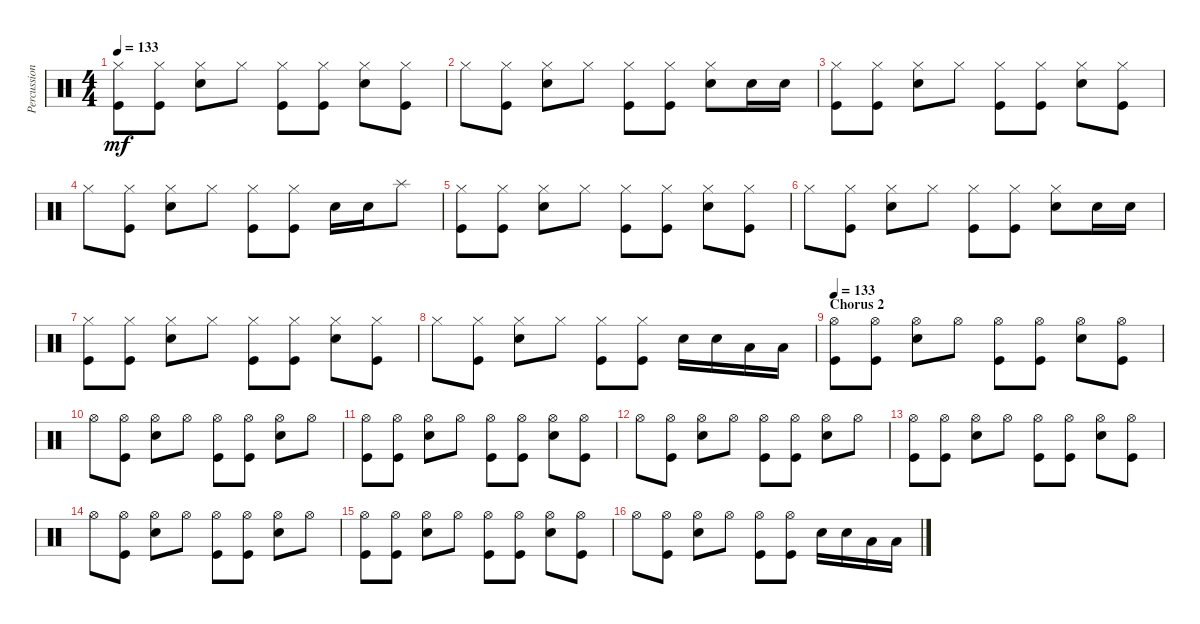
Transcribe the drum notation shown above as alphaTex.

\track ("Percussion" "Percussion") {instrument percussion}
\staff {score}
\articulation defaults
\ts (4 4)
\tempo 133
\clef neutral
\ks c
("Hi-Hat (closed)" "Kick (hit)").8{dy mf} ("Hi-Hat (closed)" "Kick (hit)").8 ("Hi-Hat (closed)" "Snare (hit) 2").8 "Hi-Hat (closed)".8 ("Hi-Hat (closed)" "Kick (hit)").8 ("Hi-Hat (closed)" "Kick (hit)").8 ("Hi-Hat (closed)" "Snare (hit) 2").8 ("Hi-Hat (closed)" "Kick (hit)").8 |
"Hi-Hat (closed)".8 ("Hi-Hat (closed)" "Kick (hit)").8 ("Hi-Hat (closed)" "Snare (hit) 2").8 "Hi-Hat (closed)".8 ("Hi-Hat (closed)" "Kick (hit)").8 ("Hi-Hat (closed)" "Kick (hit)").8 ("Hi-Hat (closed)" "Snare (hit) 2").8 "Snare (hit) 2".16 "Snare (hit) 2".16 |
("Hi-Hat (closed)" "Kick (hit)").8 ("Hi-Hat (closed)" "Kick (hit)").8 ("Hi-Hat (closed)" "Snare (hit) 2").8 "Hi-Hat (closed)".8 ("Hi-Hat (closed)" "Kick (hit)").8 ("Hi-Hat (closed)" "Kick (hit)").8 ("Hi-Hat (closed)" "Snare (hit) 2").8 ("Hi-Hat (closed)" "Kick (hit)").8 |
"Hi-Hat (closed)".8 ("Hi-Hat (closed)" "Kick (hit)").8 ("Hi-Hat (closed)" "Snare (hit) 2").8 "Hi-Hat (closed)".8 ("Hi-Hat (closed)" "Kick (hit)").8 ("Hi-Hat (closed)" "Kick (hit)").8 "Snare (hit) 2".16 "Snare (hit) 2".16 "Splash (hit)".8 |
("Hi-Hat (closed)" "Kick (hit)").8 ("Hi-Hat (closed)" "Kick (hit)").8 ("Hi-Hat (closed)" "Snare (hit) 2").8 "Hi-Hat (closed)".8 ("Hi-Hat (closed)" "Kick (hit)").8 ("Hi-Hat (closed)" "Kick (hit)").8 ("Hi-Hat (closed)" "Snare (hit) 2").8 ("Hi-Hat (closed)" "Kick (hit)").8 |
"Hi-Hat (closed)".8 ("Hi-Hat (closed)" "Kick (hit)").8 ("Hi-Hat (closed)" "Snare (hit) 2").8 "Hi-Hat (closed)".8 ("Hi-Hat (closed)" "Kick (hit)").8 ("Hi-Hat (closed)" "Kick (hit)").8 ("Hi-Hat (closed)" "Snare (hit) 2").8 "Snare (hit) 2".16 "Snare (hit) 2".16 |
("Hi-Hat (closed)" "Kick (hit)").8 ("Hi-Hat (closed)" "Kick (hit)").8 ("Hi-Hat (closed)" "Snare (hit) 2").8 "Hi-Hat (closed)".8 ("Hi-Hat (closed)" "Kick (hit)").8 ("Hi-Hat (closed)" "Kick (hit)").8 ("Hi-Hat (closed)" "Snare (hit) 2").8 ("Hi-Hat (closed)" "Kick (hit)").8 |
"Hi-Hat (closed)".8 ("Hi-Hat (closed)" "Kick (hit)").8 ("Hi-Hat (closed)" "Snare (hit) 2").8 "Hi-Hat (closed)".8 ("Hi-Hat (closed)" "Kick (hit)").8 ("Hi-Hat (closed)" "Kick (hit)").8 "Snare (hit) 2".16 "Snare (hit) 2".16 "Low Tom (hit)".16 "Low Tom (hit)".16 |
\section ("" "Chorus 2")
\tempo 133
("Hi-Hat (open)" "Kick (hit)").8 ("Hi-Hat (open)" "Kick (hit)").8 ("Hi-Hat (open)" "Snare (hit) 2").8 "Hi-Hat (open)".8 ("Hi-Hat (open)" "Kick (hit)").8 ("Hi-Hat (open)" "Kick (hit)").8 ("Hi-Hat (open)" "Snare (hit) 2").8 ("Hi-Hat (open)" "Kick (hit)").8 |
"Hi-Hat (open)".8 ("Hi-Hat (open)" "Kick (hit)").8 ("Hi-Hat (open)" "Snare (hit) 2").8 "Hi-Hat (open)".8 ("Hi-Hat (open)" "Kick (hit)").8 ("Hi-Hat (open)" "Kick (hit)").8 ("Hi-Hat (open)" "Snare (hit) 2").8 "Hi-Hat (open)".8 |
("Hi-Hat (open)" "Kick (hit)").8 ("Hi-Hat (open)" "Kick (hit)").8 ("Hi-Hat (open)" "Snare (hit) 2").8 "Hi-Hat (open)".8 ("Hi-Hat (open)" "Kick (hit)").8 ("Hi-Hat (open)" "Kick (hit)").8 ("Hi-Hat (open)" "Snare (hit) 2").8 ("Hi-Hat (open)" "Kick (hit)").8 |
"Hi-Hat (open)".8 ("Hi-Hat (open)" "Kick (hit)").8 ("Hi-Hat (open)" "Snare (hit) 2").8 "Hi-Hat (open)".8 ("Hi-Hat (open)" "Kick (hit)").8 ("Hi-Hat (open)" "Kick (hit)").8 ("Hi-Hat (open)" "Snare (hit) 2").8 "Hi-Hat (open)".8 |
("Hi-Hat (open)" "Kick (hit)").8 ("Hi-Hat (open)" "Kick (hit)").8 ("Hi-Hat (open)" "Snare (hit) 2").8 "Hi-Hat (open)".8 ("Hi-Hat (open)" "Kick (hit)").8 ("Hi-Hat (open)" "Kick (hit)").8 ("Hi-Hat (open)" "Snare (hit) 2").8 ("Hi-Hat (open)" "Kick (hit)").8 |
"Hi-Hat (open)".8 ("Hi-Hat (open)" "Kick (hit)").8 ("Hi-Hat (open)" "Snare (hit) 2").8 "Hi-Hat (open)".8 ("Hi-Hat (open)" "Kick (hit)").8 ("Hi-Hat (open)" "Kick (hit)").8 ("Hi-Hat (open)" "Snare (hit) 2").8 "Hi-Hat (open)".8 |
("Hi-Hat (open)" "Kick (hit)").8 ("Hi-Hat (open)" "Kick (hit)").8 ("Hi-Hat (open)" "Snare (hit) 2").8 "Hi-Hat (open)".8 ("Hi-Hat (open)" "Kick (hit)").8 ("Hi-Hat (open)" "Kick (hit)").8 ("Hi-Hat (open)" "Snare (hit) 2").8 ("Hi-Hat (open)" "Kick (hit)").8 |
"Hi-Hat (open)".8 ("Hi-Hat (open)" "Kick (hit)").8 ("Hi-Hat (open)" "Snare (hit) 2").8 "Hi-Hat (open)".8 ("Hi-Hat (open)" "Kick (hit)").8 ("Hi-Hat (open)" "Kick (hit)").8 "Snare (hit) 2".16 "Snare (hit) 2".16 "Low Tom (hit)".16 "Low Tom (hit)".16
